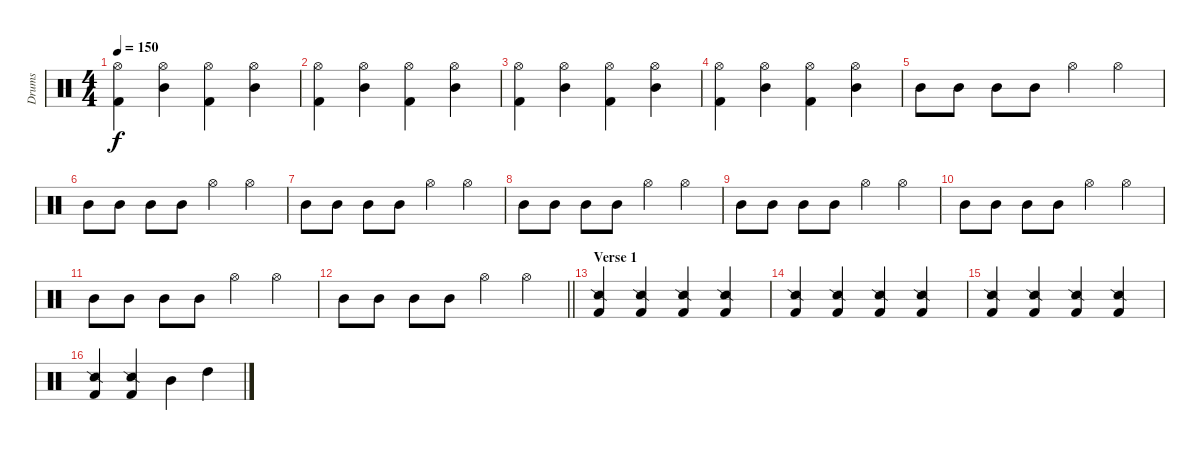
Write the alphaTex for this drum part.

\track ("Drums" "Drums") {instrument percussion}
\staff {score}
\articulation defaults
\ts (4 4)
\tempo 150
\clef neutral
\ks c
("Kick (hit) 2" "Hi-Hat (open)").4{dy f} ("Mid Tom (hit)" "Hi-Hat (open)").4 ("Kick (hit) 2" "Hi-Hat (open)").4 ("Mid Tom (hit)" "Hi-Hat (open)").4 |
("Kick (hit) 2" "Hi-Hat (open)").4 ("Mid Tom (hit)" "Hi-Hat (open)").4 ("Kick (hit) 2" "Hi-Hat (open)").4 ("Mid Tom (hit)" "Hi-Hat (open)").4 |
("Kick (hit) 2" "Hi-Hat (open)").4 ("Mid Tom (hit)" "Hi-Hat (open)").4 ("Kick (hit) 2" "Hi-Hat (open)").4 ("Mid Tom (hit)" "Hi-Hat (open)").4 |
("Kick (hit) 2" "Hi-Hat (open)").4 ("Mid Tom (hit)" "Hi-Hat (open)").4 ("Kick (hit) 2" "Hi-Hat (open)").4 ("Mid Tom (hit)" "Hi-Hat (open)").4 |
"Mid Tom (hit)".8 "Mid Tom (hit)".8 "Mid Tom (hit)".8 "Mid Tom (hit)".8 "Hi-Hat (open)".4 "Hi-Hat (open)".4 |
"Mid Tom (hit)".8 "Mid Tom (hit)".8 "Mid Tom (hit)".8 "Mid Tom (hit)".8 "Hi-Hat (open)".4 "Hi-Hat (open)".4 |
"Mid Tom (hit)".8 "Mid Tom (hit)".8 "Mid Tom (hit)".8 "Mid Tom (hit)".8 "Hi-Hat (open)".4 "Hi-Hat (open)".4 |
"Mid Tom (hit)".8 "Mid Tom (hit)".8 "Mid Tom (hit)".8 "Mid Tom (hit)".8 "Hi-Hat (open)".4 "Hi-Hat (open)".4 |
"Mid Tom (hit)".8 "Mid Tom (hit)".8 "Mid Tom (hit)".8 "Mid Tom (hit)".8 "Hi-Hat (open)".4 "Hi-Hat (open)".4 |
"Mid Tom (hit)".8 "Mid Tom (hit)".8 "Mid Tom (hit)".8 "Mid Tom (hit)".8 "Hi-Hat (open)".4 "Hi-Hat (open)".4 |
"Mid Tom (hit)".8 "Mid Tom (hit)".8 "Mid Tom (hit)".8 "Mid Tom (hit)".8 "Hi-Hat (open)".4 "Hi-Hat (open)".4 |
\barLineRight lightlight "Mid Tom (hit)".8 "Mid Tom (hit)".8 "Mid Tom (hit)".8 "Mid Tom (hit)".8 "Hi-Hat (open)".4 "Hi-Hat (open)".4
|
\section ("" "Verse 1")
("Snare (side stick) 2" "Kick (hit) 2").4 ("Snare (side stick) 2" "Kick (hit) 2").4 ("Snare (side stick) 2" "Kick (hit) 2").4 ("Snare (side stick) 2" "Kick (hit) 2").4 |
("Snare (side stick) 2" "Kick (hit) 2").4 ("Snare (side stick) 2" "Kick (hit) 2").4 ("Snare (side stick) 2" "Kick (hit) 2").4 ("Snare (side stick) 2" "Kick (hit) 2").4 |
("Snare (side stick) 2" "Kick (hit) 2").4 ("Snare (side stick) 2" "Kick (hit) 2").4 ("Snare (side stick) 2" "Kick (hit) 2").4 ("Snare (side stick) 2" "Kick (hit) 2").4 |
("Snare (side stick) 2" "Kick (hit) 2").4 ("Snare (side stick) 2" "Kick (hit) 2").4 "Mid Tom (hit)".4 "High Tom (hit)".4
